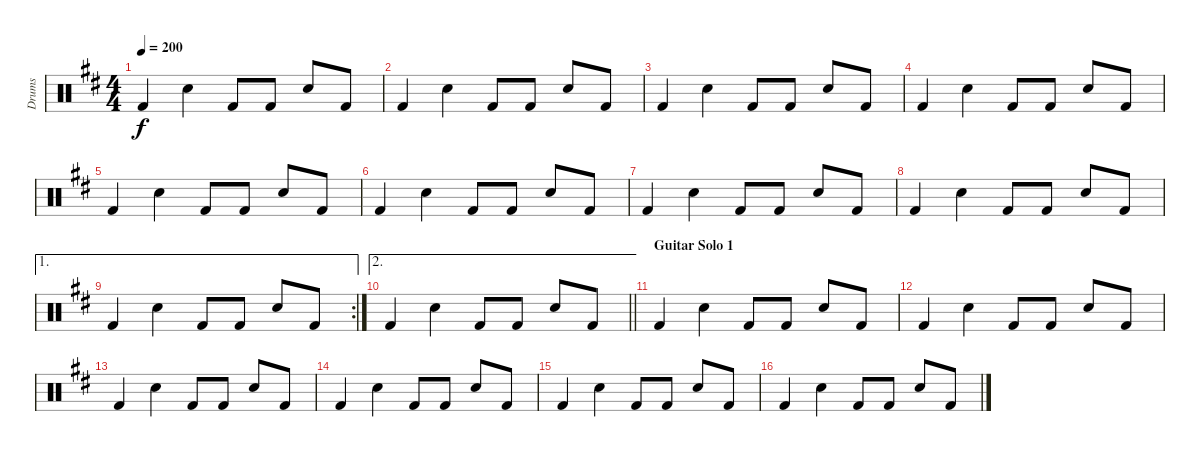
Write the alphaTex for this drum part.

\track ("Drums" "Drums") {instrument percussion}
\staff {score}
\articulation defaults
\ts (4 4)
\tempo 200
\clef neutral
\ks d "Kick (hit) 2".4{dy f} "Electric Snare (hit)".4 "Kick (hit) 2".8 "Kick (hit) 2".8 "Electric Snare (hit)".8 "Kick (hit) 2".8
|
"Kick (hit) 2".4 "Electric Snare (hit)".4 "Kick (hit) 2".8 "Kick (hit) 2".8 "Electric Snare (hit)".8 "Kick (hit) 2".8 |
"Kick (hit) 2".4 "Electric Snare (hit)".4 "Kick (hit) 2".8 "Kick (hit) 2".8 "Electric Snare (hit)".8 "Kick (hit) 2".8 |
"Kick (hit) 2".4 "Electric Snare (hit)".4 "Kick (hit) 2".8 "Kick (hit) 2".8 "Electric Snare (hit)".8 "Kick (hit) 2".8 |
"Kick (hit) 2".4 "Electric Snare (hit)".4 "Kick (hit) 2".8 "Kick (hit) 2".8 "Electric Snare (hit)".8 "Kick (hit) 2".8 |
"Kick (hit) 2".4 "Electric Snare (hit)".4 "Kick (hit) 2".8 "Kick (hit) 2".8 "Electric Snare (hit)".8 "Kick (hit) 2".8 |
"Kick (hit) 2".4 "Electric Snare (hit)".4 "Kick (hit) 2".8 "Kick (hit) 2".8 "Electric Snare (hit)".8 "Kick (hit) 2".8 |
"Kick (hit) 2".4 "Electric Snare (hit)".4 "Kick (hit) 2".8 "Kick (hit) 2".8 "Electric Snare (hit)".8 "Kick (hit) 2".8 |
\ae 1
\rc 2 "Kick (hit) 2".4 "Electric Snare (hit)".4 "Kick (hit) 2".8 "Kick (hit) 2".8 "Electric Snare (hit)".8 "Kick (hit) 2".8
|
\ae 2
\barLineRight lightlight "Kick (hit) 2".4 "Electric Snare (hit)".4 "Kick (hit) 2".8 "Kick (hit) 2".8 "Electric Snare (hit)".8 "Kick (hit) 2".8
|
\section ("" "Guitar Solo 1")
"Kick (hit) 2".4 "Electric Snare (hit)".4 "Kick (hit) 2".8 "Kick (hit) 2".8 "Electric Snare (hit)".8 "Kick (hit) 2".8 |
"Kick (hit) 2".4 "Electric Snare (hit)".4 "Kick (hit) 2".8 "Kick (hit) 2".8 "Electric Snare (hit)".8 "Kick (hit) 2".8 |
"Kick (hit) 2".4 "Electric Snare (hit)".4 "Kick (hit) 2".8 "Kick (hit) 2".8 "Electric Snare (hit)".8 "Kick (hit) 2".8 |
"Kick (hit) 2".4 "Electric Snare (hit)".4 "Kick (hit) 2".8 "Kick (hit) 2".8 "Electric Snare (hit)".8 "Kick (hit) 2".8 |
"Kick (hit) 2".4 "Electric Snare (hit)".4 "Kick (hit) 2".8 "Kick (hit) 2".8 "Electric Snare (hit)".8 "Kick (hit) 2".8 |
"Kick (hit) 2".4 "Electric Snare (hit)".4 "Kick (hit) 2".8 "Kick (hit) 2".8 "Electric Snare (hit)".8 "Kick (hit) 2".8
